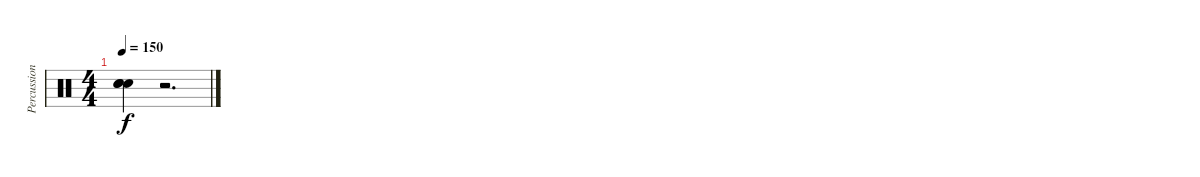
\track ("Percussion" "Percussion") {instrument percussion}
\staff {score}
\articulation defaults
\ts (4 4)
\tempo 150
\clef neutral
\ks c
("Snare (hit)"{t} "Snare (hit)"{t} "Snare (hit)"{t}).4{dy f} r.2{d}
